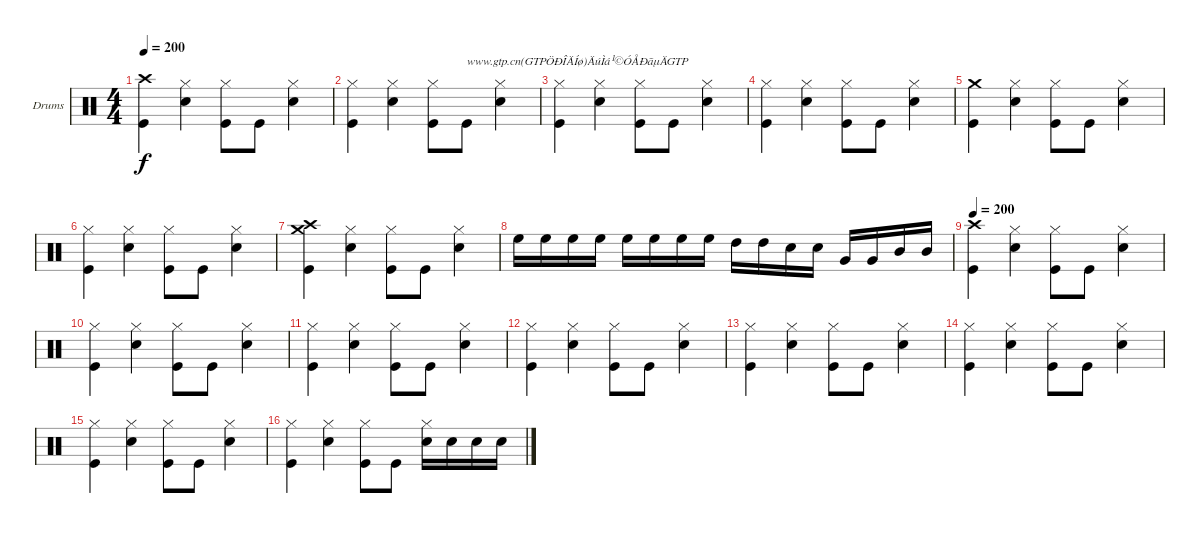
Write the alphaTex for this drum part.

\bracketExtendMode groupsimilarinstruments
\firstSystemTrackNameOrientation horizontal
\otherSystemsTrackNameOrientation horizontal
\track ("Drumkit" "Drums") {instrument percussion}
\staff {score}
\articulation defaults
\ts (4 4)
\tempo 200
\clef neutral
\ks c
("Crash high (hit)" "Kick (hit)").4{dy f} ("Hi-Hat (closed)" "Snare (hit) 2").4 ("Hi-Hat (closed)" "Kick (hit)").8 "Kick (hit)".8 ("Hi-Hat (closed)" "Snare (hit) 2").4 |
("Hi-Hat (closed)" "Kick (hit)").4 ("Hi-Hat (closed)" "Snare (hit) 2").4 ("Hi-Hat (closed)" "Kick (hit)").8 "Kick (hit)".8{txt "www.gtp.cn(GTPÖÐÎÄÍø)ÄúÌá¹©ÓÅÐãµÄGTP"} ("Hi-Hat (closed)" "Snare (hit) 2").4 |
("Hi-Hat (closed)" "Kick (hit)").4 ("Hi-Hat (closed)" "Snare (hit) 2").4 ("Hi-Hat (closed)" "Kick (hit)").8 "Kick (hit)".8 ("Hi-Hat (closed)" "Snare (hit) 2").4 |
("Hi-Hat (closed)" "Kick (hit)").4 ("Hi-Hat (closed)" "Snare (hit) 2").4 ("Hi-Hat (closed)" "Kick (hit)").8 "Kick (hit)".8 ("Hi-Hat (closed)" "Snare (hit) 2").4 |
("Crash medium (hit)" "Kick (hit)").4 ("Hi-Hat (closed)" "Snare (hit) 2").4 ("Hi-Hat (closed)" "Kick (hit)").8 "Kick (hit)".8 ("Hi-Hat (closed)" "Snare (hit) 2").4 |
("Hi-Hat (closed)" "Kick (hit)").4 ("Hi-Hat (closed)" "Snare (hit) 2").4 ("Hi-Hat (closed)" "Kick (hit)").8 "Kick (hit)".8 ("Hi-Hat (closed)" "Snare (hit) 2").4 |
("Crash medium (hit)" "Crash high (hit)" "Kick (hit)").4 ("Hi-Hat (closed)" "Snare (hit) 2").4 ("Hi-Hat (closed)" "Kick (hit)").8 "Kick (hit)".8 ("Hi-Hat (closed)" "Snare (hit) 2").4 |
"High Floor Tom (hit)".16 "High Floor Tom (hit)".16 "High Floor Tom (hit)".16 "High Floor Tom (hit)".16 "High Floor Tom (hit)".16 "High Floor Tom (hit)".16 "High Floor Tom (hit)".16 "High Floor Tom (hit)".16 "High Tom (hit)".16 "High Tom (hit)".16 "Snare (hit) 2".16 "Snare (hit) 2".16 "Very Low Tom (hit)".16 "Very Low Tom (hit)".16 "Mid Tom (hit)".16 "Mid Tom (hit)".16 |
\tempo 200
("Crash high (hit)" "Kick (hit)").4 ("Hi-Hat (closed)" "Snare (hit) 2").4 ("Hi-Hat (closed)" "Kick (hit)").8 "Kick (hit)".8 ("Hi-Hat (closed)" "Snare (hit) 2").4 |
("Hi-Hat (closed)" "Kick (hit)").4 ("Hi-Hat (closed)" "Snare (hit) 2").4 ("Hi-Hat (closed)" "Kick (hit)").8 "Kick (hit)".8 ("Hi-Hat (closed)" "Snare (hit) 2").4 |
("Hi-Hat (closed)" "Kick (hit)").4 ("Hi-Hat (closed)" "Snare (hit) 2").4 ("Hi-Hat (closed)" "Kick (hit)").8 "Kick (hit)".8 ("Hi-Hat (closed)" "Snare (hit) 2").4 |
("Hi-Hat (closed)" "Kick (hit)").4 ("Hi-Hat (closed)" "Snare (hit) 2").4 ("Hi-Hat (closed)" "Kick (hit)").8 "Kick (hit)".8 ("Hi-Hat (closed)" "Snare (hit) 2").4 |
("Hi-Hat (closed)" "Kick (hit)").4 ("Hi-Hat (closed)" "Snare (hit) 2").4 ("Hi-Hat (closed)" "Kick (hit)").8 "Kick (hit)".8 ("Hi-Hat (closed)" "Snare (hit) 2").4 |
("Hi-Hat (closed)" "Kick (hit)").4 ("Hi-Hat (closed)" "Snare (hit) 2").4 ("Hi-Hat (closed)" "Kick (hit)").8 "Kick (hit)".8 ("Hi-Hat (closed)" "Snare (hit) 2").4 |
("Hi-Hat (closed)" "Kick (hit)").4 ("Hi-Hat (closed)" "Snare (hit) 2").4 ("Hi-Hat (closed)" "Kick (hit)").8 "Kick (hit)".8 ("Hi-Hat (closed)" "Snare (hit) 2").4 |
("Hi-Hat (closed)" "Kick (hit)").4 ("Hi-Hat (closed)" "Snare (hit) 2").4 ("Hi-Hat (closed)" "Kick (hit)").8 "Kick (hit)".8 ("Hi-Hat (closed)" "Snare (hit) 2").16 "Snare (hit) 2".16 "Snare (hit) 2".16 "Snare (hit) 2".16
